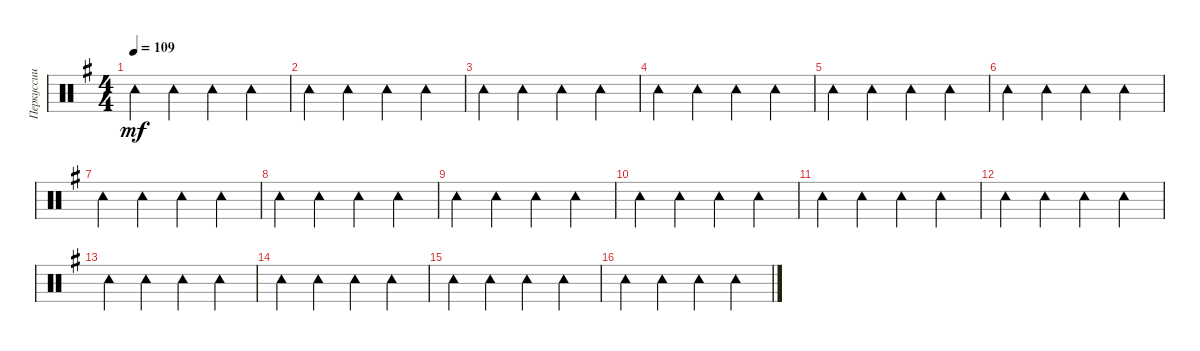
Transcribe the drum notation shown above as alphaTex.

\track ("Перкуссии" "Перкуссии") {instrument percussion}
\staff {score}
\articulation defaults
\ts (4 4)
\tempo 109
\clef neutral
\ks eminor "Tambourine (hit)".4{dy mf} "Tambourine (hit)".4 "Tambourine (hit)".4 "Tambourine (hit)".4
|
"Tambourine (hit)".4 "Tambourine (hit)".4 "Tambourine (hit)".4 "Tambourine (hit)".4 |
"Tambourine (hit)".4 "Tambourine (hit)".4 "Tambourine (hit)".4 "Tambourine (hit)".4 |
"Tambourine (hit)".4 "Tambourine (hit)".4 "Tambourine (hit)".4 "Tambourine (hit)".4 |
"Tambourine (hit)".4 "Tambourine (hit)".4 "Tambourine (hit)".4 "Tambourine (hit)".4 |
"Tambourine (hit)".4 "Tambourine (hit)".4 "Tambourine (hit)".4 "Tambourine (hit)".4 |
"Tambourine (hit)".4 "Tambourine (hit)".4 "Tambourine (hit)".4 "Tambourine (hit)".4 |
"Tambourine (hit)".4 "Tambourine (hit)".4 "Tambourine (hit)".4 "Tambourine (hit)".4 |
"Tambourine (hit)".4 "Tambourine (hit)".4 "Tambourine (hit)".4 "Tambourine (hit)".4 |
"Tambourine (hit)".4 "Tambourine (hit)".4 "Tambourine (hit)".4 "Tambourine (hit)".4 |
"Tambourine (hit)".4 "Tambourine (hit)".4 "Tambourine (hit)".4 "Tambourine (hit)".4 |
"Tambourine (hit)".4 "Tambourine (hit)".4 "Tambourine (hit)".4 "Tambourine (hit)".4 |
"Tambourine (hit)".4 "Tambourine (hit)".4 "Tambourine (hit)".4 "Tambourine (hit)".4 |
"Tambourine (hit)".4 "Tambourine (hit)".4 "Tambourine (hit)".4 "Tambourine (hit)".4 |
"Tambourine (hit)".4 "Tambourine (hit)".4 "Tambourine (hit)".4 "Tambourine (hit)".4 |
"Tambourine (hit)".4 "Tambourine (hit)".4 "Tambourine (hit)".4 "Tambourine (hit)".4
